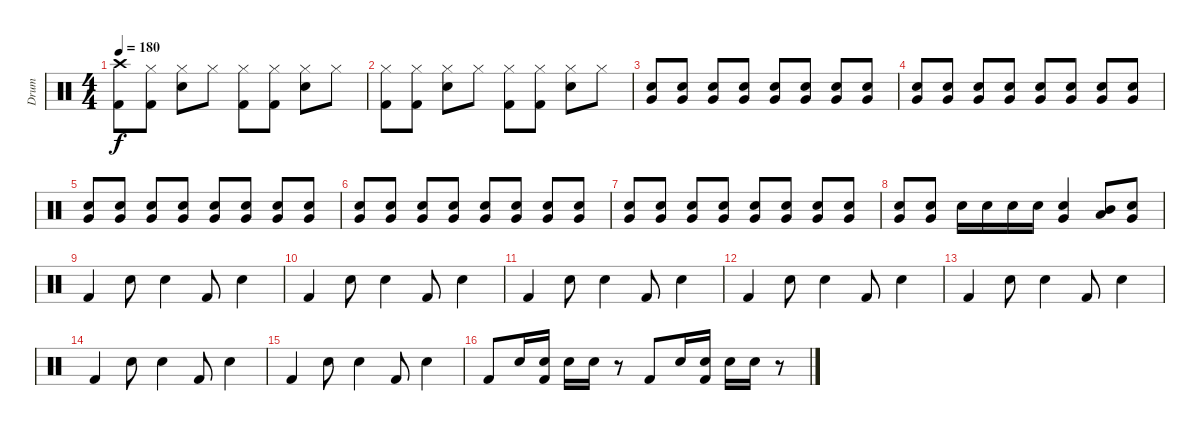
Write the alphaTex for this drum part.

\track ("Drum" "Drum") {instrument percussion}
\staff {score}
\articulation defaults
\ts (4 4)
\tempo 180
\clef neutral
\ks c
("Crash high (hit)" "Kick (hit) 2").8{dy f} ("Hi-Hat (closed)" "Kick (hit) 2").8 ("Hi-Hat (closed)" "Electric Snare (hit)").8 "Hi-Hat (closed)".8 ("Hi-Hat (closed)" "Kick (hit) 2").8 ("Hi-Hat (closed)" "Kick (hit) 2").8 ("Hi-Hat (closed)" "Electric Snare (hit)").8 "Hi-Hat (closed)".8 |
("Hi-Hat (closed)" "Kick (hit) 2").8 ("Hi-Hat (closed)" "Kick (hit) 2").8 ("Hi-Hat (closed)" "Electric Snare (hit)").8 "Hi-Hat (closed)".8 ("Hi-Hat (closed)" "Kick (hit) 2").8 ("Hi-Hat (closed)" "Kick (hit) 2").8 ("Hi-Hat (closed)" "Electric Snare (hit)").8 "Hi-Hat (closed)".8 |
("Very Low Tom (hit)" "Electric Snare (hit)").8 ("Very Low Tom (hit)" "Electric Snare (hit)").8 ("Very Low Tom (hit)" "Electric Snare (hit)").8 ("Very Low Tom (hit)" "Electric Snare (hit)").8 ("Very Low Tom (hit)" "Electric Snare (hit)").8 ("Very Low Tom (hit)" "Electric Snare (hit)").8 ("Very Low Tom (hit)" "Electric Snare (hit)").8 ("Very Low Tom (hit)" "Electric Snare (hit)").8 |
("Very Low Tom (hit)" "Electric Snare (hit)").8 ("Very Low Tom (hit)" "Electric Snare (hit)").8 ("Very Low Tom (hit)" "Electric Snare (hit)").8 ("Very Low Tom (hit)" "Electric Snare (hit)").8 ("Very Low Tom (hit)" "Electric Snare (hit)").8 ("Very Low Tom (hit)" "Electric Snare (hit)").8 ("Very Low Tom (hit)" "Electric Snare (hit)").8 ("Very Low Tom (hit)" "Electric Snare (hit)").8 |
("Very Low Tom (hit)" "Electric Snare (hit)").8 ("Very Low Tom (hit)" "Electric Snare (hit)").8 ("Very Low Tom (hit)" "Electric Snare (hit)").8 ("Very Low Tom (hit)" "Electric Snare (hit)").8 ("Very Low Tom (hit)" "Electric Snare (hit)").8 ("Very Low Tom (hit)" "Electric Snare (hit)").8 ("Very Low Tom (hit)" "Electric Snare (hit)").8 ("Very Low Tom (hit)" "Electric Snare (hit)").8 |
("Very Low Tom (hit)" "Electric Snare (hit)").8 ("Very Low Tom (hit)" "Electric Snare (hit)").8 ("Very Low Tom (hit)" "Electric Snare (hit)").8 ("Very Low Tom (hit)" "Electric Snare (hit)").8 ("Very Low Tom (hit)" "Electric Snare (hit)").8 ("Very Low Tom (hit)" "Electric Snare (hit)").8 ("Very Low Tom (hit)" "Electric Snare (hit)").8 ("Very Low Tom (hit)" "Electric Snare (hit)").8 |
("Very Low Tom (hit)" "Electric Snare (hit)").8 ("Very Low Tom (hit)" "Electric Snare (hit)").8 ("Very Low Tom (hit)" "Electric Snare (hit)").8 ("Very Low Tom (hit)" "Electric Snare (hit)").8 ("Very Low Tom (hit)" "Electric Snare (hit)").8 ("Very Low Tom (hit)" "Electric Snare (hit)").8 ("Very Low Tom (hit)" "Electric Snare (hit)").8 ("Very Low Tom (hit)" "Electric Snare (hit)").8 |
("Very Low Tom (hit)" "Electric Snare (hit)").8 ("Very Low Tom (hit)" "Electric Snare (hit)").8 "Electric Snare (hit)".16 "Electric Snare (hit)".16 "Electric Snare (hit)".16 "Electric Snare (hit)".16 ("Very Low Tom (hit)" "Electric Snare (hit)").4 ("Mid Tom (hit)" "Low Tom (hit)").8 ("Very Low Tom (hit)" "Electric Snare (hit)").8 |
"Kick (hit) 2".4 "Hand Clap (hit)".8 "Hand Clap (hit)".4 "Kick (hit) 2".8 "Hand Clap (hit)".4 |
"Kick (hit) 2".4 "Hand Clap (hit)".8 "Hand Clap (hit)".4 "Kick (hit) 2".8 "Hand Clap (hit)".4 |
"Kick (hit) 2".4 "Hand Clap (hit)".8 "Hand Clap (hit)".4 "Kick (hit) 2".8 "Hand Clap (hit)".4 |
"Kick (hit) 2".4 "Hand Clap (hit)".8 "Hand Clap (hit)".4 "Kick (hit) 2".8 "Hand Clap (hit)".4 |
"Kick (hit) 2".4 "Hand Clap (hit)".8 "Hand Clap (hit)".4 "Kick (hit) 2".8 "Hand Clap (hit)".4 |
"Kick (hit) 2".4 "Hand Clap (hit)".8 "Hand Clap (hit)".4 "Kick (hit) 2".8 "Hand Clap (hit)".4 |
"Kick (hit) 2".4 "Hand Clap (hit)".8 "Hand Clap (hit)".4 "Kick (hit) 2".8 "Hand Clap (hit)".4 |
"Kick (hit) 2".8 "Electric Snare (hit)".16 ("Electric Snare (hit)" "Kick (hit) 2").16 "Electric Snare (hit)".16 "Electric Snare (hit)".16 r.8 "Kick (hit) 2".8 "Electric Snare (hit)".16 ("Electric Snare (hit)" "Kick (hit) 2").16 "Electric Snare (hit)".16 "Electric Snare (hit)".16 r.8
